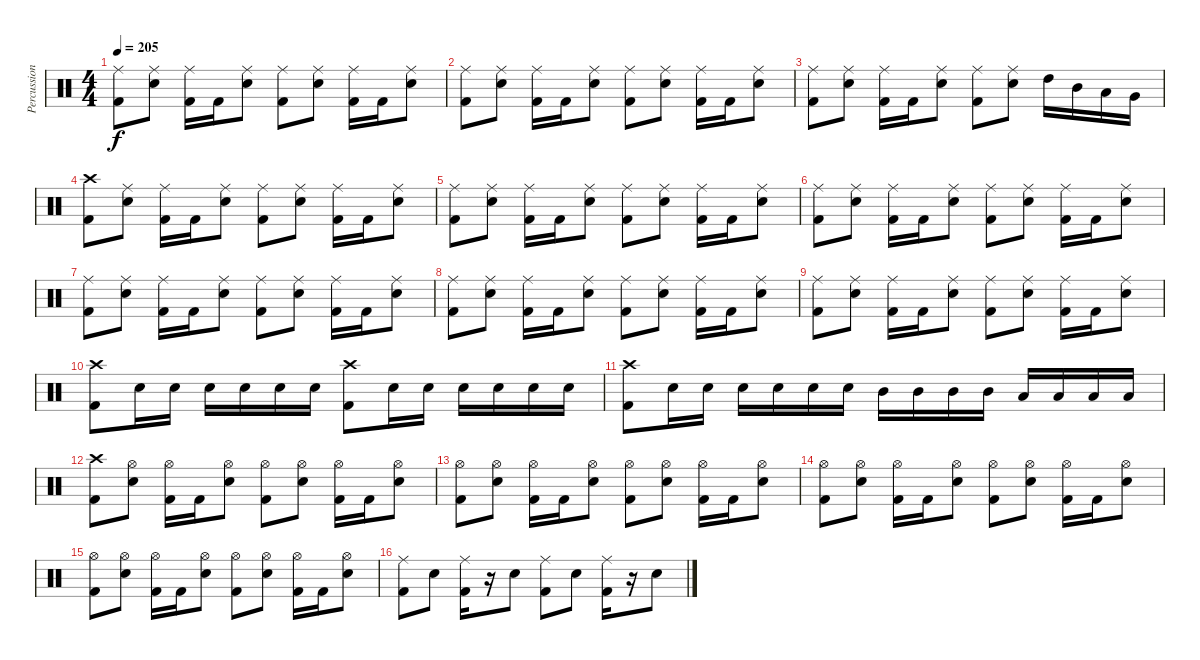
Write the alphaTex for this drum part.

\track ("Percussions" "Percussion") {instrument percussion}
\staff {score}
\articulation defaults
\ts (4 4)
\tempo 205
\clef neutral
\ks c
("Ride (middle)" "Kick (hit) 2").8{dy f} ("Ride (middle)" "Snare (hit) 2").8 ("Ride (middle)" "Kick (hit) 2").16 "Kick (hit) 2".16 ("Ride (middle)" "Snare (hit) 2").8 ("Ride (middle)" "Kick (hit) 2").8 ("Ride (middle)" "Snare (hit) 2").8 ("Ride (middle)" "Kick (hit) 2").16 "Kick (hit) 2".16 ("Ride (middle)" "Snare (hit) 2").8 |
("Ride (middle)" "Kick (hit) 2").8 ("Ride (middle)" "Snare (hit) 2").8 ("Ride (middle)" "Kick (hit) 2").16 "Kick (hit) 2".16 ("Ride (middle)" "Snare (hit) 2").8 ("Ride (middle)" "Kick (hit) 2").8 ("Ride (middle)" "Snare (hit) 2").8 ("Ride (middle)" "Kick (hit) 2").16 "Kick (hit) 2".16 ("Ride (middle)" "Snare (hit) 2").8 |
("Ride (middle)" "Kick (hit) 2").8 ("Ride (middle)" "Snare (hit) 2").8 ("Ride (middle)" "Kick (hit) 2").16 "Kick (hit) 2".16 ("Ride (middle)" "Snare (hit) 2").8 ("Ride (middle)" "Kick (hit) 2").8 ("Ride (middle)" "Snare (hit) 2").8 "High Tom (hit)".16 "Mid Tom (hit)".16 "Low Tom (hit)".16 "Very Low Tom (hit)".16 |
("Crash high (hit)" "Kick (hit) 2").8 ("Ride (middle)" "Snare (hit) 2").8 ("Ride (middle)" "Kick (hit) 2").16 "Kick (hit) 2".16 ("Ride (middle)" "Snare (hit) 2").8 ("Ride (middle)" "Kick (hit) 2").8 ("Ride (middle)" "Snare (hit) 2").8 ("Ride (middle)" "Kick (hit) 2").16 "Kick (hit) 2".16 ("Ride (middle)" "Snare (hit) 2").8 |
("Ride (middle)" "Kick (hit) 2").8 ("Ride (middle)" "Snare (hit) 2").8 ("Ride (middle)" "Kick (hit) 2").16 "Kick (hit) 2".16 ("Ride (middle)" "Snare (hit) 2").8 ("Ride (middle)" "Kick (hit) 2").8 ("Ride (middle)" "Snare (hit) 2").8 ("Ride (middle)" "Kick (hit) 2").16 "Kick (hit) 2".16 ("Ride (middle)" "Snare (hit) 2").8 |
("Ride (middle)" "Kick (hit) 2").8 ("Ride (middle)" "Snare (hit) 2").8 ("Ride (middle)" "Kick (hit) 2").16 "Kick (hit) 2".16 ("Ride (middle)" "Snare (hit) 2").8 ("Ride (middle)" "Kick (hit) 2").8 ("Ride (middle)" "Snare (hit) 2").8 ("Ride (middle)" "Kick (hit) 2").16 "Kick (hit) 2".16 ("Ride (middle)" "Snare (hit) 2").8 |
("Ride (middle)" "Kick (hit) 2").8 ("Ride (middle)" "Snare (hit) 2").8 ("Ride (middle)" "Kick (hit) 2").16 "Kick (hit) 2".16 ("Ride (middle)" "Snare (hit) 2").8 ("Ride (middle)" "Kick (hit) 2").8 ("Ride (middle)" "Snare (hit) 2").8 ("Ride (middle)" "Kick (hit) 2").16 "Kick (hit) 2".16 ("Ride (middle)" "Snare (hit) 2").8 |
("Ride (middle)" "Kick (hit) 2").8 ("Ride (middle)" "Snare (hit) 2").8 ("Ride (middle)" "Kick (hit) 2").16 "Kick (hit) 2".16 ("Ride (middle)" "Snare (hit) 2").8 ("Ride (middle)" "Kick (hit) 2").8 ("Ride (middle)" "Snare (hit) 2").8 ("Ride (middle)" "Kick (hit) 2").16 "Kick (hit) 2".16 ("Ride (middle)" "Snare (hit) 2").8 |
("Ride (middle)" "Kick (hit) 2").8 ("Ride (middle)" "Snare (hit) 2").8 ("Ride (middle)" "Kick (hit) 2").16 "Kick (hit) 2".16 ("Ride (middle)" "Snare (hit) 2").8 ("Ride (middle)" "Kick (hit) 2").8 ("Ride (middle)" "Snare (hit) 2").8 ("Ride (middle)" "Kick (hit) 2").16 "Kick (hit) 2".16 ("Ride (middle)" "Snare (hit) 2").8 |
("Crash high (hit)" "Kick (hit) 2").8 "Snare (hit) 2".16 "Snare (hit) 2".16 "Snare (hit) 2".16 "Snare (hit) 2".16 "Snare (hit) 2".16 "Snare (hit) 2".16 ("Crash high (hit)" "Kick (hit) 2").8 "Snare (hit) 2".16 "Snare (hit) 2".16 "Snare (hit) 2".16 "Snare (hit) 2".16 "Snare (hit) 2".16 "Snare (hit) 2".16 |
("Crash high (hit)" "Kick (hit) 2").8 "Snare (hit) 2".16 "Snare (hit) 2".16 "Snare (hit) 2".16 "Snare (hit) 2".16 "Snare (hit) 2".16 "Snare (hit) 2".16 "Mid Tom (hit)".16 "Mid Tom (hit)".16 "Mid Tom (hit)".16 "Mid Tom (hit)".16 "Low Tom (hit)".16 "Low Tom (hit)".16 "Low Tom (hit)".16 "Low Tom (hit)".16 |
("Crash high (hit)" "Kick (hit) 2").8 ("Hi-Hat (open)" "Snare (hit) 2").8 ("Hi-Hat (open)" "Kick (hit) 2").16 "Kick (hit) 2".16 ("Hi-Hat (open)" "Snare (hit) 2").8 ("Hi-Hat (open)" "Kick (hit) 2").8 ("Hi-Hat (open)" "Snare (hit) 2").8 ("Hi-Hat (open)" "Kick (hit) 2").16 "Kick (hit) 2".16 ("Hi-Hat (open)" "Snare (hit) 2").8 |
("Hi-Hat (open)" "Kick (hit) 2").8 ("Hi-Hat (open)" "Snare (hit) 2").8 ("Hi-Hat (open)" "Kick (hit) 2").16 "Kick (hit) 2".16 ("Hi-Hat (open)" "Snare (hit) 2").8 ("Hi-Hat (open)" "Kick (hit) 2").8 ("Hi-Hat (open)" "Snare (hit) 2").8 ("Hi-Hat (open)" "Kick (hit) 2").16 "Kick (hit) 2".16 ("Hi-Hat (open)" "Snare (hit) 2").8 |
("Hi-Hat (open)" "Kick (hit) 2").8 ("Hi-Hat (open)" "Snare (hit) 2").8 ("Hi-Hat (open)" "Kick (hit) 2").16 "Kick (hit) 2".16 ("Hi-Hat (open)" "Snare (hit) 2").8 ("Hi-Hat (open)" "Kick (hit) 2").8 ("Hi-Hat (open)" "Snare (hit) 2").8 ("Hi-Hat (open)" "Kick (hit) 2").16 "Kick (hit) 2".16 ("Hi-Hat (open)" "Snare (hit) 2").8 |
("Hi-Hat (open)" "Kick (hit) 2").8 ("Hi-Hat (open)" "Snare (hit) 2").8 ("Hi-Hat (open)" "Kick (hit) 2").16 "Kick (hit) 2".16 ("Hi-Hat (open)" "Snare (hit) 2").8 ("Hi-Hat (open)" "Kick (hit) 2").8 ("Hi-Hat (open)" "Snare (hit) 2").8 ("Hi-Hat (open)" "Kick (hit) 2").16 "Kick (hit) 2".16 ("Hi-Hat (open)" "Snare (hit) 2").8 |
("Ride (middle)" "Kick (hit) 2").8 "Snare (hit) 2".8 ("Ride (middle)" "Kick (hit) 2").16 r.16 "Snare (hit) 2".8 ("Ride (middle)" "Kick (hit) 2").8 "Snare (hit) 2".8 ("Ride (middle)" "Kick (hit) 2").16 r.16 "Snare (hit) 2".8
